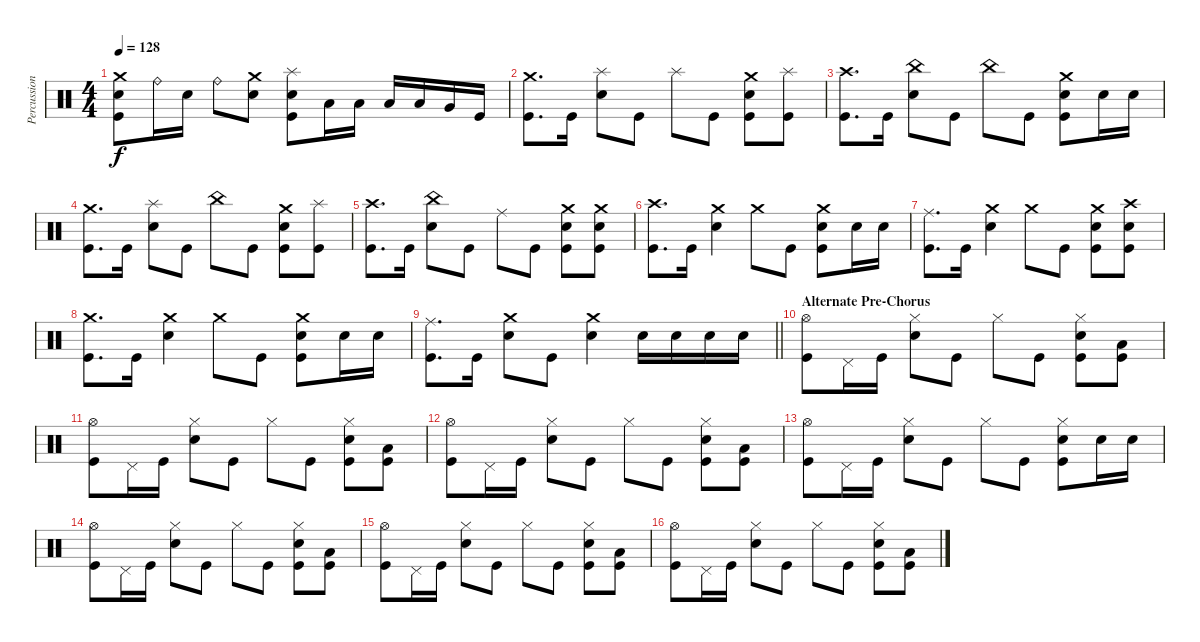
\track ("Percussion" "Percussion") {instrument percussion}
\staff {score}
\articulation defaults
\ts (4 4)
\tempo 128
\clef neutral
\ks c
("Crash medium (hit)" "Electric Snare (hit)" "Kick (hit)").8{dy f} "Ride (bell)".16 "Electric Snare (hit)".16 "Ride (bell)".8 ("Crash medium (hit)" "Electric Snare (hit)").8 ("Splash (hit)" "Electric Snare (hit)" "Kick (hit)").8 "Low Floor Tom (hit)".16 "Low Floor Tom (hit)".16 "Low Tom (hit)".16 "Low Tom (hit)".16 "Very Low Tom (hit)".16 "Kick (hit)".16 |
("Crash medium (hit)" "Kick (hit)").8{d} "Kick (hit)".16 ("Splash (hit)" "Electric Snare (hit)").8 "Kick (hit)".8 "Splash (hit)".8 "Kick (hit)".8 ("Crash medium (hit)" "Electric Snare (hit)" "Kick (hit)").8 ("Splash (hit)" "Kick (hit)").8 |
("Crash high (hit)" "Kick (hit)").8{d} "Kick (hit)".16 ("China (hit)" "Electric Snare (hit)").8 "Kick (hit)".8 "China (hit)".8 "Kick (hit)".8 ("Crash medium (hit)" "Electric Snare (hit)" "Kick (hit)").8 "Electric Snare (hit)".16 "Electric Snare (hit)".16 |
("Crash medium (hit)" "Kick (hit)").8{d} "Kick (hit)".16 ("Splash (hit)" "Electric Snare (hit)").8 "Kick (hit)".8 "China (hit)".8 "Kick (hit)".8 ("Crash medium (hit)" "Electric Snare (hit)" "Kick (hit)").8 ("Splash (hit)" "Kick (hit)").8 |
("Crash high (hit)" "Kick (hit)").8{d} "Kick (hit)".16 ("China (hit)" "Electric Snare (hit)").8 "Kick (hit)".8 "Ride (middle)".8 "Kick (hit)".8 ("Crash medium (hit)" "Electric Snare (hit)" "Kick (hit)").8 ("Crash medium (hit)" "Electric Snare (hit)" "Kick (hit)").8 |
("Crash high (hit)" "Kick (hit)").8{d} "Kick (hit)".16 ("Crash medium (hit)" "Electric Snare (hit)").4 "Crash medium (hit)".8 "Kick (hit)".8 ("Crash medium (hit)" "Electric Snare (hit)" "Kick (hit)").8 "Electric Snare (hit)".16 "Electric Snare (hit)".16 |
("Ride (middle)" "Kick (hit)").8{d} "Kick (hit)".16 ("Crash medium (hit)" "Electric Snare (hit)").4 "Crash medium (hit)".8 "Kick (hit)".8 ("Crash medium (hit)" "Electric Snare (hit)" "Kick (hit)").8 ("Crash high (hit)" "Electric Snare (hit)" "Kick (hit)").8 |
("Crash medium (hit)" "Kick (hit)").8{d} "Kick (hit)".16 ("Crash medium (hit)" "Electric Snare (hit)").4 "Crash medium (hit)".8 "Kick (hit)".8 ("Crash medium (hit)" "Electric Snare (hit)" "Kick (hit)").8 "Electric Snare (hit)".16 "Electric Snare (hit)".16 |
\barLineRight lightlight
("Ride (middle)" "Kick (hit)").8{d} "Kick (hit)".16 ("Crash medium (hit)" "Electric Snare (hit)").8 "Kick (hit)".8 ("Crash medium (hit)" "Electric Snare (hit)").4 "Electric Snare (hit)".16 "Electric Snare (hit)".16 "Electric Snare (hit)".16 "Electric Snare (hit)".16 |
\section ("" "Alternate Pre-Chorus")
("Hi-Hat (open)" "Kick (hit)").8 "Pedal Hi-Hat (hit)".16 "Kick (hit)".16 ("Hi-Hat (closed)" "Electric Snare (hit)").8 "Kick (hit)".8 "Hi-Hat (closed)".8 "Kick (hit)".8 ("Hi-Hat (closed)" "Electric Snare (hit)" "Kick (hit)").8 ("Low Tom (hit)" "Kick (hit)").8 |
("Hi-Hat (open)" "Kick (hit)").8 "Pedal Hi-Hat (hit)".16 "Kick (hit)".16 ("Hi-Hat (closed)" "Electric Snare (hit)").8 "Kick (hit)".8 "Hi-Hat (closed)".8 "Kick (hit)".8 ("Hi-Hat (closed)" "Electric Snare (hit)" "Kick (hit)").8 ("Low Tom (hit)" "Kick (hit)").8 |
("Hi-Hat (open)" "Kick (hit)").8 "Pedal Hi-Hat (hit)".16 "Kick (hit)".16 ("Hi-Hat (closed)" "Electric Snare (hit)").8 "Kick (hit)".8 "Hi-Hat (closed)".8 "Kick (hit)".8 ("Hi-Hat (closed)" "Electric Snare (hit)" "Kick (hit)").8 ("Low Tom (hit)" "Kick (hit)").8 |
("Hi-Hat (open)" "Kick (hit)").8 "Pedal Hi-Hat (hit)".16 "Kick (hit)".16 ("Hi-Hat (closed)" "Electric Snare (hit)").8 "Kick (hit)".8 "Hi-Hat (closed)".8 "Kick (hit)".8 ("Hi-Hat (closed)" "Electric Snare (hit)" "Kick (hit)").8 "Electric Snare (hit)".16 "Electric Snare (hit)".16 |
("Hi-Hat (open)" "Kick (hit)").8 "Pedal Hi-Hat (hit)".16 "Kick (hit)".16 ("Hi-Hat (closed)" "Electric Snare (hit)").8 "Kick (hit)".8 "Hi-Hat (closed)".8 "Kick (hit)".8 ("Hi-Hat (closed)" "Electric Snare (hit)" "Kick (hit)").8 ("Low Tom (hit)" "Kick (hit)").8 |
("Hi-Hat (open)" "Kick (hit)").8 "Pedal Hi-Hat (hit)".16 "Kick (hit)".16 ("Hi-Hat (closed)" "Electric Snare (hit)").8 "Kick (hit)".8 "Hi-Hat (closed)".8 "Kick (hit)".8 ("Hi-Hat (closed)" "Electric Snare (hit)" "Kick (hit)").8 ("Low Tom (hit)" "Kick (hit)").8 |
("Hi-Hat (open)" "Kick (hit)").8 "Pedal Hi-Hat (hit)".16 "Kick (hit)".16 ("Hi-Hat (closed)" "Electric Snare (hit)").8 "Kick (hit)".8 "Hi-Hat (closed)".8 "Kick (hit)".8 ("Hi-Hat (closed)" "Electric Snare (hit)" "Kick (hit)").8 ("Low Tom (hit)" "Kick (hit)").8
